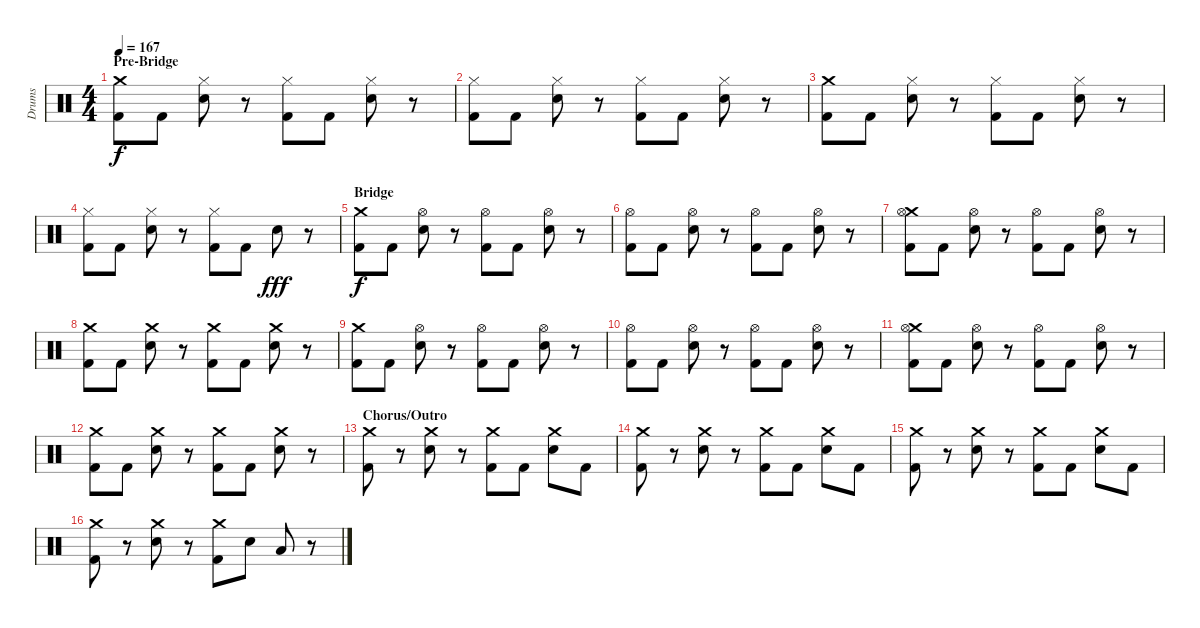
\track ("Drums" "Drums") {instrument percussion}
\staff {score}
\articulation defaults
\ts (4 4)
\section ("" "Pre-Bridge")
\tempo 167
\clef neutral
\ks c
("Crash medium (hit)" "Kick (hit) 2").8{dy f} "Kick (hit) 2".8 ("Hi-Hat (closed)" "Electric Snare (hit)").8 r.8 ("Hi-Hat (closed)" "Kick (hit) 2").8 "Kick (hit) 2".8 ("Hi-Hat (closed)" "Electric Snare (hit)").8 r.8 |
("Hi-Hat (closed)" "Kick (hit) 2").8 "Kick (hit) 2".8 ("Hi-Hat (closed)" "Electric Snare (hit)").8 r.8 ("Hi-Hat (closed)" "Kick (hit) 2").8 "Kick (hit) 2".8 ("Hi-Hat (closed)" "Electric Snare (hit)").8 r.8 |
("Crash medium (hit)" "Kick (hit) 2").8 "Kick (hit) 2".8 ("Hi-Hat (closed)" "Electric Snare (hit)").8 r.8 ("Hi-Hat (closed)" "Kick (hit) 2").8 "Kick (hit) 2".8 ("Hi-Hat (closed)" "Electric Snare (hit)").8 r.8 |
("Hi-Hat (closed)" "Kick (hit) 2").8 "Kick (hit) 2".8 ("Hi-Hat (closed)" "Electric Snare (hit)").8 r.8 ("Hi-Hat (closed)" "Kick (hit) 2").8 "Kick (hit) 2".8 "Electric Snare (hit)".8{dy fff} r.8 |
\section ("" "Bridge")
("Crash medium (hit)" "Kick (hit) 2").8{dy f} "Kick (hit) 2".8 ("Hi-Hat (open)" "Electric Snare (hit)").8 r.8 ("Hi-Hat (open)" "Kick (hit) 2").8 "Kick (hit) 2".8 ("Hi-Hat (open)" "Electric Snare (hit)").8 r.8 |
("Hi-Hat (open)" "Kick (hit) 2").8 "Kick (hit) 2".8 ("Hi-Hat (open)" "Electric Snare (hit)").8 r.8 ("Hi-Hat (open)" "Kick (hit) 2").8 "Kick (hit) 2".8 ("Hi-Hat (open)" "Electric Snare (hit)").8 r.8 |
("Crash medium (hit)" "Hi-Hat (open)" "Kick (hit) 2").8 "Kick (hit) 2".8 ("Hi-Hat (open)" "Electric Snare (hit)").8 r.8 ("Hi-Hat (open)" "Kick (hit) 2").8 "Kick (hit) 2".8 ("Hi-Hat (open)" "Electric Snare (hit)").8 r.8 |
("Crash medium (hit)" "Kick (hit) 2").8 "Kick (hit) 2".8 ("Crash medium (hit)" "Electric Snare (hit)").8 r.8 ("Crash medium (hit)" "Kick (hit) 2").8 "Kick (hit) 2".8 ("Crash medium (hit)" "Electric Snare (hit)").8 r.8 |
("Crash medium (hit)" "Kick (hit) 2").8 "Kick (hit) 2".8 ("Hi-Hat (open)" "Electric Snare (hit)").8 r.8 ("Hi-Hat (open)" "Kick (hit) 2").8 "Kick (hit) 2".8 ("Hi-Hat (open)" "Electric Snare (hit)").8 r.8 |
("Hi-Hat (open)" "Kick (hit) 2").8 "Kick (hit) 2".8 ("Hi-Hat (open)" "Electric Snare (hit)").8 r.8 ("Hi-Hat (open)" "Kick (hit) 2").8 "Kick (hit) 2".8 ("Hi-Hat (open)" "Electric Snare (hit)").8 r.8 |
("Crash medium (hit)" "Hi-Hat (open)" "Kick (hit) 2").8 "Kick (hit) 2".8 ("Hi-Hat (open)" "Electric Snare (hit)").8 r.8 ("Hi-Hat (open)" "Kick (hit) 2").8 "Kick (hit) 2".8 ("Hi-Hat (open)" "Electric Snare (hit)").8 r.8 |
("Crash medium (hit)" "Kick (hit) 2").8 "Kick (hit) 2".8 ("Crash medium (hit)" "Electric Snare (hit)").8 r.8 ("Crash medium (hit)" "Kick (hit) 2").8 "Kick (hit) 2".8 ("Crash medium (hit)" "Electric Snare (hit)").8 r.8 |
\section ("" "Chorus/Outro")
("Crash medium (hit)" "Kick (hit) 2").8 r.8 ("Crash medium (hit)" "Electric Snare (hit)").8 r.8 ("Crash medium (hit)" "Kick (hit) 2").8 "Kick (hit) 2".8 ("Crash medium (hit)" "Electric Snare (hit)").8 "Kick (hit) 2".8 |
("Crash medium (hit)" "Kick (hit) 2").8 r.8 ("Crash medium (hit)" "Electric Snare (hit)").8 r.8 ("Crash medium (hit)" "Kick (hit) 2").8 "Kick (hit) 2".8 ("Crash medium (hit)" "Electric Snare (hit)").8 "Kick (hit) 2".8 |
("Crash medium (hit)" "Kick (hit) 2").8 r.8 ("Crash medium (hit)" "Electric Snare (hit)").8 r.8 ("Crash medium (hit)" "Kick (hit) 2").8 "Kick (hit) 2".8 ("Crash medium (hit)" "Electric Snare (hit)").8 "Kick (hit) 2".8 |
("Crash medium (hit)" "Kick (hit) 2").8 r.8 ("Crash medium (hit)" "Electric Snare (hit)").8 r.8 ("Crash medium (hit)" "Kick (hit) 2").8 "Electric Snare (hit)".8 "Low Tom (hit)".8 r.8
